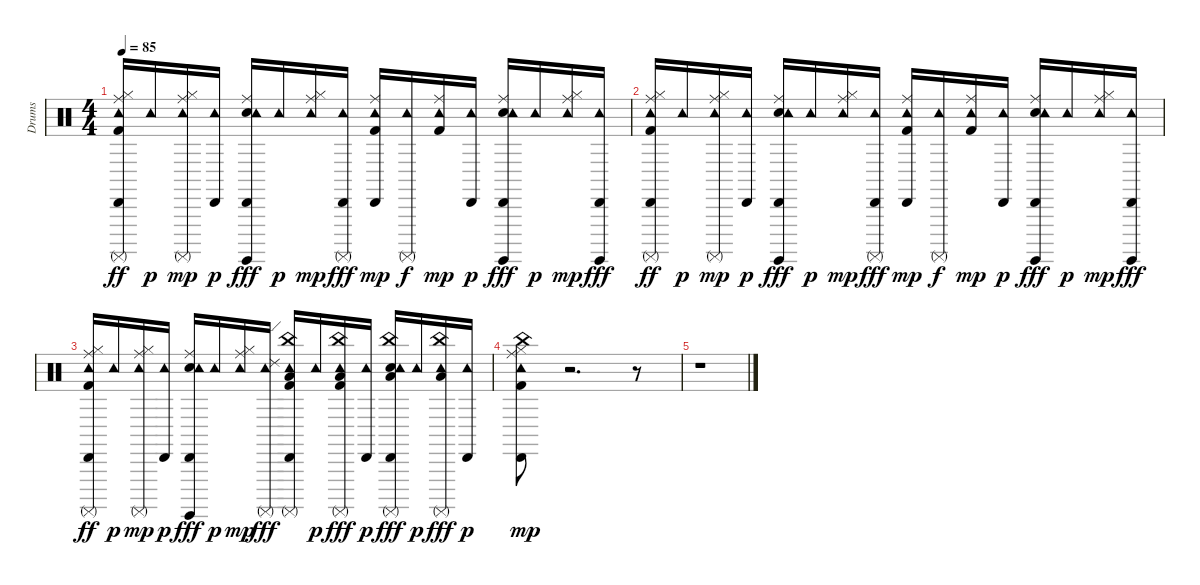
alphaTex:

\track ("Drums" "Drums") {instrument percussion}
\staff {score}
\articulation defaults
\ts (4 4)
\tempo 85
\clef neutral
\ks c
("Kick (hit) 2" "Hi-Hat (closed)" "Ride (middle)" "Tambourine (hit)" "Cabasa (hit)" "Surdo (mute)").16{dy ff} "Tambourine (hit)".16{dy p} ("Hi-Hat (closed)" "Ride (middle)" "Tambourine (hit)" "Surdo (mute)").16{dy mp} ("Cabasa (hit)" "Tambourine (hit)").16{dy p} ("Snare (hit) 2" "Ride (middle)" "Tambourine (hit)" "Cabasa (hit)" "Surdo (hit)").16{dy fff} "Tambourine (hit)".16{dy p} ("Hi-Hat (closed)" "Ride (middle)" "Tambourine (hit)").16{dy mp} ("Surdo (mute)" "Cabasa (hit)" "Tambourine (hit)").16{dy fff} ("Kick (hit) 2" "Ride (middle)" "Tambourine (hit)" "Cabasa (hit)").16{dy mp} ("Surdo (mute)" "Tambourine (hit)").16{dy f} ("Kick (hit) 2" "Ride (middle)" "Tambourine (hit)").16{dy mp} ("Cabasa (hit)" "Tambourine (hit)").16{dy p} ("Snare (hit) 2" "Ride (middle)" "Tambourine (hit)" "Cabasa (hit)" "Surdo (hit)").16{dy fff} "Tambourine (hit)".16{dy p} ("Hi-Hat (closed)" "Ride (middle)" "Tambourine (hit)").16{dy mp} ("Surdo (hit)" "Cabasa (hit)" "Tambourine (hit)").16{dy fff} |
("Kick (hit) 2" "Hi-Hat (closed)" "Ride (middle)" "Tambourine (hit)" "Cabasa (hit)" "Surdo (mute)").16{dy ff} "Tambourine (hit)".16{dy p} ("Hi-Hat (closed)" "Ride (middle)" "Tambourine (hit)" "Surdo (mute)").16{dy mp} ("Cabasa (hit)" "Tambourine (hit)").16{dy p} ("Snare (hit) 2" "Ride (middle)" "Tambourine (hit)" "Cabasa (hit)" "Surdo (hit)").16{dy fff} "Tambourine (hit)".16{dy p} ("Hi-Hat (closed)" "Ride (middle)" "Tambourine (hit)").16{dy mp} ("Surdo (mute)" "Cabasa (hit)" "Tambourine (hit)").16{dy fff} ("Kick (hit) 2" "Ride (middle)" "Tambourine (hit)" "Cabasa (hit)").16{dy mp} ("Surdo (mute)" "Tambourine (hit)").16{dy f} ("Kick (hit) 2" "Ride (middle)" "Tambourine (hit)").16{dy mp} ("Cabasa (hit)" "Tambourine (hit)").16{dy p} ("Snare (hit) 2" "Ride (middle)" "Tambourine (hit)" "Cabasa (hit)" "Surdo (hit)").16{dy fff} "Tambourine (hit)".16{dy p} ("Hi-Hat (closed)" "Ride (middle)" "Tambourine (hit)").16{dy mp} ("Surdo (hit)" "Cabasa (hit)" "Tambourine (hit)").16{dy fff} |
("Kick (hit) 2" "Hi-Hat (closed)" "Ride (middle)" "Tambourine (hit)" "Cabasa (hit)" "Surdo (mute)").16{dy ff} "Tambourine (hit)".16{dy p} ("Hi-Hat (closed)" "Ride (middle)" "Tambourine (hit)" "Surdo (mute)").16{dy mp} ("Cabasa (hit)" "Tambourine (hit)").16{dy p} ("Snare (hit) 2" "Ride (middle)" "Tambourine (hit)" "Cabasa (hit)" "Surdo (hit)").16{dy fff} "Tambourine (hit)".16{dy p} ("Hi-Hat (closed)" "Ride (middle)" "Tambourine (hit)").16{dy mp} ("Surdo (mute)" "Ride (edge) 2" "Tambourine (hit)").16{dy fff} ("Kick (hit) 2" "Low Floor Tom (hit)" "China (hit)" "Tambourine (hit)" "Cabasa (hit)" "Surdo (mute)").16 "Tambourine (hit)".16{dy p} ("Kick (hit) 2" "Low Floor Tom (hit)" "China (hit)" "Tambourine (hit)" "Surdo (mute)").16{dy fff} ("Cabasa (hit)" "Tambourine (hit)").16{dy p} ("Snare (hit) 2" "Low Floor Tom (hit)" "China (hit)" "Tambourine (hit)" "Cabasa (hit)" "Surdo (mute)").16{dy fff} "Tambourine (hit)".16{dy p} ("Low Floor Tom (hit)" "China (hit)" "Tambourine (hit)" "Surdo (mute)").16{dy fff} ("Cabasa (hit)" "Tambourine (hit)").16{dy p} |
("Kick (hit) 2" "Hi-Hat (closed)" "Ride (middle)" "China (hit)" "Tambourine (hit)" "Cabasa (hit)").8{dy mp} r.2{d} r.8 |
r.1
